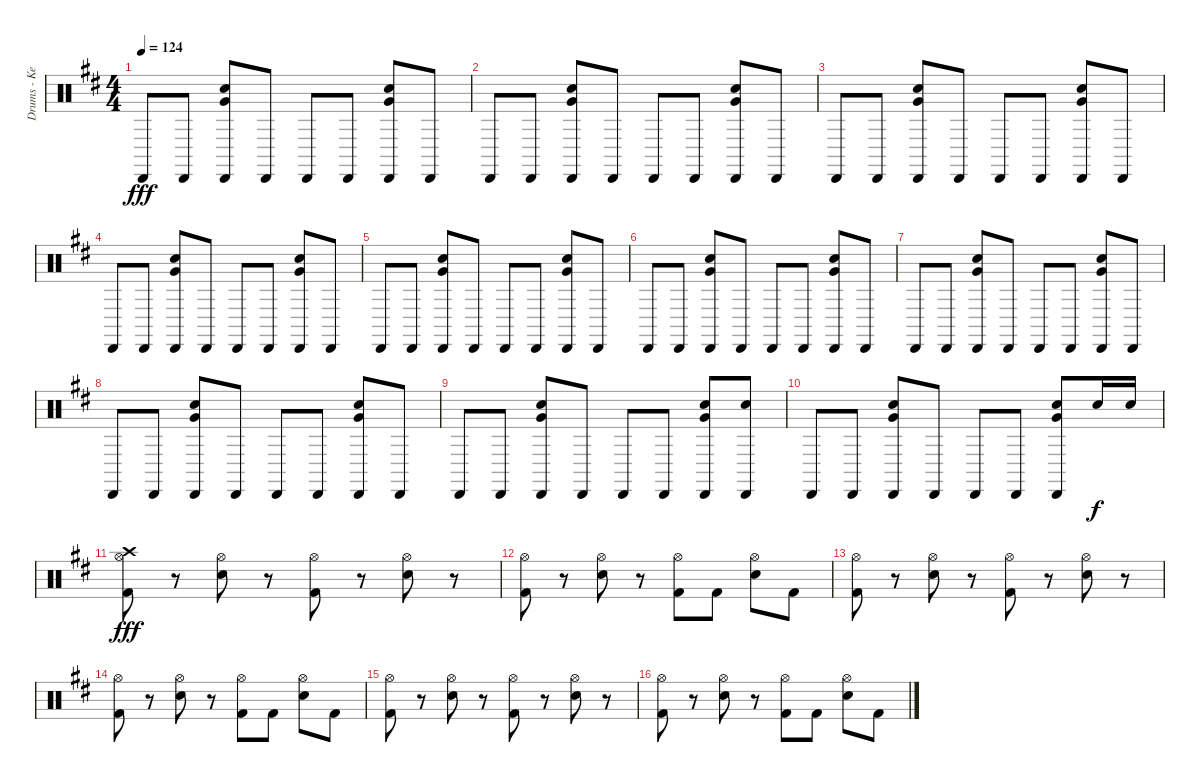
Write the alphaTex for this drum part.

\track ("Drums - Kevin Frank" "Drums - Ke") {instrument percussion}
\staff {score}
\articulation defaults
\ts (4 4)
\tempo 124
\clef neutral
\ks d "Cabasa (hit)".8{dy fff} "Cabasa (hit)".8
("Cabasa (hit)" "Snare (hit) 2" "Very Low Tom (hit)").8 "Cabasa (hit)".8 "Cabasa (hit)".8 "Cabasa (hit)".8 ("Cabasa (hit)" "Snare (hit) 2" "Very Low Tom (hit)").8 "Cabasa (hit)".8 |
"Cabasa (hit)".8 "Cabasa (hit)".8 ("Cabasa (hit)" "Snare (hit) 2" "Very Low Tom (hit)").8 "Cabasa (hit)".8 "Cabasa (hit)".8 "Cabasa (hit)".8 ("Cabasa (hit)" "Snare (hit) 2" "Very Low Tom (hit)").8 "Cabasa (hit)".8 |
"Cabasa (hit)".8 "Cabasa (hit)".8 ("Cabasa (hit)" "Snare (hit) 2" "Very Low Tom (hit)").8 "Cabasa (hit)".8 "Cabasa (hit)".8 "Cabasa (hit)".8 ("Cabasa (hit)" "Snare (hit) 2" "Very Low Tom (hit)").8 "Cabasa (hit)".8 |
"Cabasa (hit)".8 "Cabasa (hit)".8 ("Cabasa (hit)" "Snare (hit) 2" "Very Low Tom (hit)").8 "Cabasa (hit)".8 "Cabasa (hit)".8 "Cabasa (hit)".8 ("Cabasa (hit)" "Snare (hit) 2" "Very Low Tom (hit)").8 "Cabasa (hit)".8 |
"Cabasa (hit)".8 "Cabasa (hit)".8 ("Cabasa (hit)" "Snare (hit) 2" "Very Low Tom (hit)").8 "Cabasa (hit)".8 "Cabasa (hit)".8 "Cabasa (hit)".8 ("Cabasa (hit)" "Snare (hit) 2" "Very Low Tom (hit)").8 "Cabasa (hit)".8 |
"Cabasa (hit)".8 "Cabasa (hit)".8 ("Cabasa (hit)" "Snare (hit) 2" "Very Low Tom (hit)").8 "Cabasa (hit)".8 "Cabasa (hit)".8 "Cabasa (hit)".8 ("Cabasa (hit)" "Snare (hit) 2" "Very Low Tom (hit)").8 "Cabasa (hit)".8 |
"Cabasa (hit)".8 "Cabasa (hit)".8 ("Cabasa (hit)" "Snare (hit) 2" "Very Low Tom (hit)").8 "Cabasa (hit)".8 "Cabasa (hit)".8 "Cabasa (hit)".8 ("Cabasa (hit)" "Snare (hit) 2" "Very Low Tom (hit)").8 "Cabasa (hit)".8 |
"Cabasa (hit)".8 "Cabasa (hit)".8 ("Cabasa (hit)" "Snare (hit) 2" "Very Low Tom (hit)").8 "Cabasa (hit)".8 "Cabasa (hit)".8 "Cabasa (hit)".8 ("Cabasa (hit)" "Snare (hit) 2" "Very Low Tom (hit)").8 "Cabasa (hit)".8 |
"Cabasa (hit)".8 "Cabasa (hit)".8 ("Cabasa (hit)" "Snare (hit) 2" "Very Low Tom (hit)").8 "Cabasa (hit)".8 "Cabasa (hit)".8 "Cabasa (hit)".8 ("Cabasa (hit)" "Snare (hit) 2" "Very Low Tom (hit)").8 ("Cabasa (hit)" "Snare (hit) 2").8 |
"Cabasa (hit)".8 "Cabasa (hit)".8 ("Cabasa (hit)" "Snare (hit) 2" "Very Low Tom (hit)").8 "Cabasa (hit)".8 "Cabasa (hit)".8 "Cabasa (hit)".8 ("Cabasa (hit)" "Snare (hit) 2" "Very Low Tom (hit)").8 "Snare (hit) 2".16{dy f} "Snare (hit) 2".16 |
("Crash high (hit)" "Hi-Hat (open)" "Kick (hit) 2").8{dy fff volume 14} r.8 ("Hi-Hat (open)" "Snare (hit) 2").8 r.8 ("Hi-Hat (open)" "Kick (hit) 2").8 r.8 ("Hi-Hat (open)" "Snare (hit) 2").8 r.8 |
("Hi-Hat (open)" "Kick (hit) 2").8 r.8 ("Hi-Hat (open)" "Snare (hit) 2").8 r.8 ("Hi-Hat (open)" "Kick (hit) 2").8 "Kick (hit) 2".8 ("Hi-Hat (open)" "Snare (hit) 2").8 "Kick (hit) 2".8 |
("Hi-Hat (open)" "Kick (hit) 2").8 r.8 ("Hi-Hat (open)" "Snare (hit) 2").8 r.8 ("Hi-Hat (open)" "Kick (hit) 2").8 r.8 ("Hi-Hat (open)" "Snare (hit) 2").8 r.8 |
("Hi-Hat (open)" "Kick (hit) 2").8 r.8 ("Hi-Hat (open)" "Snare (hit) 2").8 r.8 ("Hi-Hat (open)" "Kick (hit) 2").8 "Kick (hit) 2".8 ("Hi-Hat (open)" "Snare (hit) 2").8 "Kick (hit) 2".8 |
("Hi-Hat (open)" "Kick (hit) 2").8 r.8 ("Hi-Hat (open)" "Snare (hit) 2").8 r.8 ("Hi-Hat (open)" "Kick (hit) 2").8 r.8 ("Hi-Hat (open)" "Snare (hit) 2").8 r.8 |
("Hi-Hat (open)" "Kick (hit) 2").8 r.8 ("Hi-Hat (open)" "Snare (hit) 2").8 r.8 ("Hi-Hat (open)" "Kick (hit) 2").8 "Kick (hit) 2".8 ("Hi-Hat (open)" "Snare (hit) 2").8 "Kick (hit) 2".8
